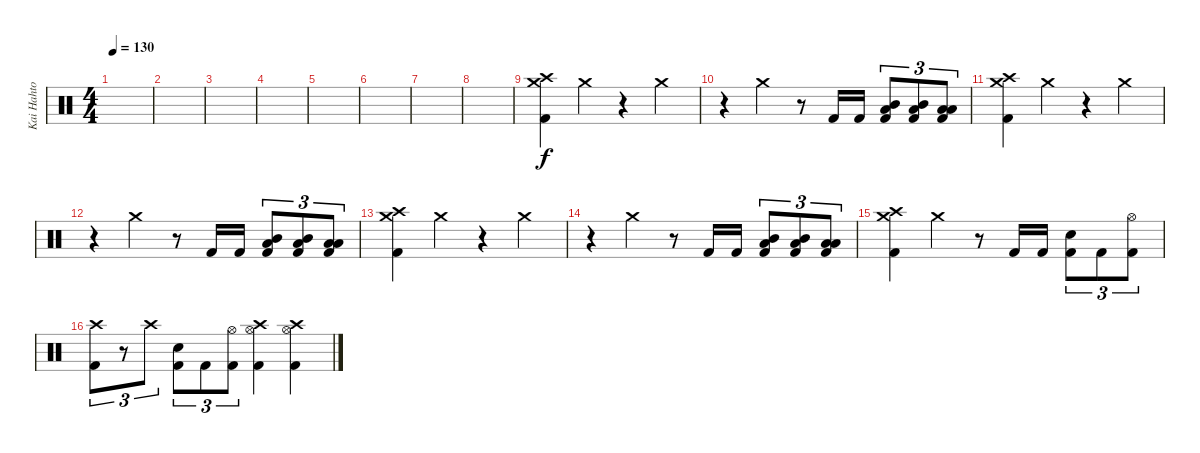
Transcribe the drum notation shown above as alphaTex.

\track ("Kai Hahto" "Kai Hahto") {instrument percussion}
\staff {score}
\articulation defaults
\ts (4 4)
\tempo 130
\clef neutral
\ks c
|
|
|
|
|
|
|
|
("Crash high (hit)" "Crash medium (hit)" "Kick (hit) 2").4 "Crash medium (hit)".4 r.4 "Crash medium (hit)".4 |
r.4 "Crash medium (hit)".4 r.8 "Kick (hit) 2".16 "Kick (hit) 2".16 ("Mid Tom (hit)" "Low Floor Tom (hit)" "Kick (hit) 2").8{tu (3 2)} ("Mid Tom (hit)" "Low Floor Tom (hit)" "Kick (hit) 2").8{tu (3 2)} ("Low Tom (hit)" "Low Floor Tom (hit)" "Kick (hit) 2").8{tu (3 2)} |
("Crash high (hit)" "Crash medium (hit)" "Kick (hit) 2").4 "Crash medium (hit)".4 r.4 "Crash medium (hit)".4 |
r.4 "Crash medium (hit)".4 r.8 "Kick (hit) 2".16 "Kick (hit) 2".16 ("Mid Tom (hit)" "Low Floor Tom (hit)" "Kick (hit) 2").8{tu (3 2)} ("Mid Tom (hit)" "Low Floor Tom (hit)" "Kick (hit) 2").8{tu (3 2)} ("Low Tom (hit)" "Low Floor Tom (hit)" "Kick (hit) 2").8{tu (3 2)} |
("Crash high (hit)" "Crash medium (hit)" "Kick (hit) 2").4 "Crash medium (hit)".4 r.4 "Crash medium (hit)".4 |
r.4 "Crash medium (hit)".4 r.8 "Kick (hit) 2".16 "Kick (hit) 2".16 ("Mid Tom (hit)" "Low Floor Tom (hit)" "Kick (hit) 2").8{tu (3 2)} ("Mid Tom (hit)" "Low Floor Tom (hit)" "Kick (hit) 2").8{tu (3 2)} ("Low Tom (hit)" "Low Floor Tom (hit)" "Kick (hit) 2").8{tu (3 2)} |
("Crash high (hit)" "Crash medium (hit)" "Kick (hit) 2").4 "Crash medium (hit)".4 r.8 "Kick (hit) 2".16 "Kick (hit) 2".16 ("Snare (hit) 2" "Kick (hit) 2").8{tu (3 2)} "Kick (hit) 2".8{tu (3 2)} ("Hi-Hat (open)" "Kick (hit) 2").8{tu (3 2)} |
("Crash high (hit)" "Kick (hit) 2").8{tu (3 2)} r.8{tu (3 2)} "Crash high (hit)".8{tu (3 2)} ("Snare (hit) 2" "Kick (hit) 2").8{tu (3 2)} "Kick (hit) 2".8{tu (3 2)} ("Hi-Hat (open)" "Kick (hit) 2").8{tu (3 2)} ("Crash high (hit)" "Hi-Hat (open)" "Kick (hit) 2").4 ("Crash high (hit)" "Hi-Hat (open)" "Kick (hit) 2").4
